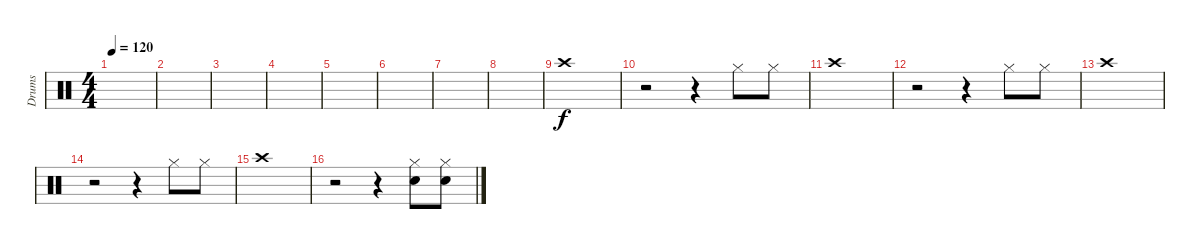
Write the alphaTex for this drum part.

\track ("Drums" "Drums") {instrument percussion}
\staff {score}
\articulation defaults
\ts (4 4)
\tempo 120
\clef neutral
\ks c
|
|
|
|
|
|
|
|
"Crash high (hit)".1 |
r.2 r.4 "Hi-Hat (closed)".8 "Hi-Hat (closed)".8 |
"Crash high (hit)".1 |
r.2 r.4 "Hi-Hat (closed)".8 "Hi-Hat (closed)".8 |
"Crash high (hit)".1 |
r.2 r.4 "Hi-Hat (closed)".8 "Hi-Hat (closed)".8 |
"Crash high (hit)".1 |
r.2 r.4 ("Hi-Hat (closed)" "Snare (hit) 2").8 ("Hi-Hat (closed)" "Snare (hit) 2").8
